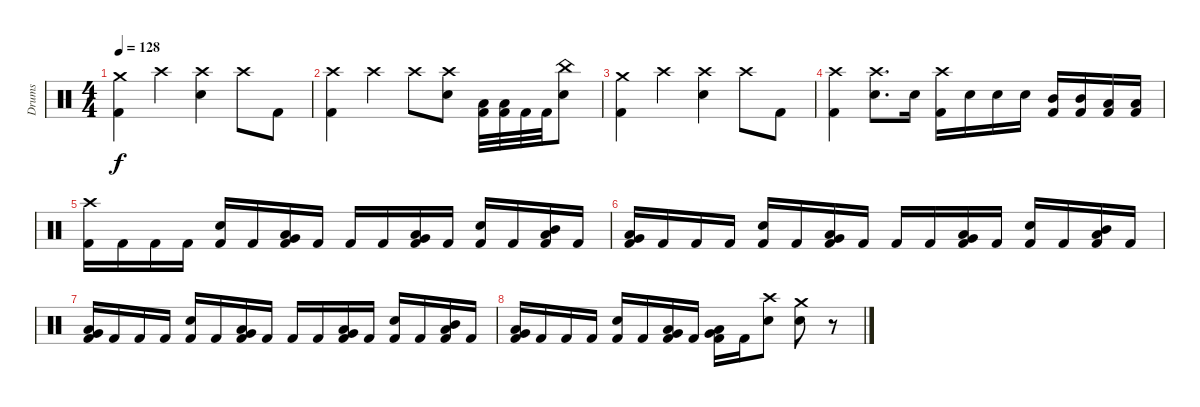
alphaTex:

\track ("Drums" "Drums") {instrument percussion}
\staff {score}
\articulation defaults
\ts (4 4)
\tempo 128
\clef neutral
\ks c
("Crash medium (hit)" "Kick (hit) 2").4{dy f} "Crash high (hit)".4 ("Crash high (hit)" "Electric Snare (hit)").4 "Crash high (hit)".8 "Kick (hit) 2".8 |
("Crash high (hit)" "Kick (hit) 2").4 "Crash high (hit)".4 "Crash high (hit)".8 ("Crash high (hit)" "Electric Snare (hit)").8 ("Low Tom (hit)" "Kick (hit) 2").32 ("Low Tom (hit)" "Kick (hit) 2").32 "Kick (hit) 2".32 "Kick (hit) 2".32 ("China (hit)" "Electric Snare (hit)").8 |
("Crash medium (hit)" "Kick (hit) 2").4 "Crash high (hit)".4 ("Crash high (hit)" "Electric Snare (hit)").4 "Crash high (hit)".8 "Kick (hit) 2".8 |
("Crash high (hit)" "Kick (hit) 2").4 ("Crash high (hit)" "Electric Snare (hit)").8{d} "Electric Snare (hit)".16 ("Crash high (hit)" "Kick (hit) 2").16 "Electric Snare (hit)".16 "Electric Snare (hit)".16 "Electric Snare (hit)".16 ("Mid Tom (hit)" "Kick (hit) 2").16 ("Mid Tom (hit)" "Kick (hit) 2").16 ("Low Tom (hit)" "Kick (hit) 2").16 ("Low Tom (hit)" "Kick (hit) 2").16 |
("Crash high (hit)" "Kick (hit) 2").16 "Kick (hit) 2".16 "Kick (hit) 2".16 "Kick (hit) 2".16 ("Electric Snare (hit)" "Kick (hit) 2").16 "Kick (hit) 2".16 ("Low Tom (hit)" "Very Low Tom (hit)" "Kick (hit) 2").16 "Kick (hit) 2".16 "Kick (hit) 2".16 "Kick (hit) 2".16 ("Low Tom (hit)" "Very Low Tom (hit)" "Kick (hit) 2").16 "Kick (hit) 2".16 ("Electric Snare (hit)" "Kick (hit) 2").16 "Kick (hit) 2".16 ("Mid Tom (hit)" "Low Tom (hit)" "Kick (hit) 2").16 "Kick (hit) 2".16 |
("Low Tom (hit)" "Very Low Tom (hit)" "Kick (hit) 2").16 "Kick (hit) 2".16 "Kick (hit) 2".16 "Kick (hit) 2".16 ("Electric Snare (hit)" "Kick (hit) 2").16 "Kick (hit) 2".16 ("Low Tom (hit)" "Very Low Tom (hit)" "Kick (hit) 2").16 "Kick (hit) 2".16 "Kick (hit) 2".16 "Kick (hit) 2".16 ("Low Tom (hit)" "Very Low Tom (hit)" "Kick (hit) 2").16 "Kick (hit) 2".16 ("Electric Snare (hit)" "Kick (hit) 2").16 "Kick (hit) 2".16 ("Mid Tom (hit)" "Low Tom (hit)" "Kick (hit) 2").16 "Kick (hit) 2".16 |
("Low Tom (hit)" "Very Low Tom (hit)" "Kick (hit) 2").16 "Kick (hit) 2".16 "Kick (hit) 2".16 "Kick (hit) 2".16 ("Electric Snare (hit)" "Kick (hit) 2").16 "Kick (hit) 2".16 ("Low Tom (hit)" "Very Low Tom (hit)" "Kick (hit) 2").16 "Kick (hit) 2".16 "Kick (hit) 2".16 "Kick (hit) 2".16 ("Low Tom (hit)" "Very Low Tom (hit)" "Kick (hit) 2").16 "Kick (hit) 2".16 ("Electric Snare (hit)" "Kick (hit) 2").16 "Kick (hit) 2".16 ("Mid Tom (hit)" "Low Tom (hit)" "Kick (hit) 2").16 "Kick (hit) 2".16 |
("Low Tom (hit)" "Very Low Tom (hit)" "Kick (hit) 2").16 "Kick (hit) 2".16 "Kick (hit) 2".16 "Kick (hit) 2".16 ("Electric Snare (hit)" "Kick (hit) 2").16 "Kick (hit) 2".16 ("Low Tom (hit)" "Very Low Tom (hit)" "Kick (hit) 2").16 "Kick (hit) 2".16 ("Low Tom (hit)" "Very Low Tom (hit)" "Kick (hit) 2").16 "Kick (hit) 2".16 ("Crash high (hit)" "Electric Snare (hit)").8 ("Crash medium (hit)" "Electric Snare (hit)").8 r.8
